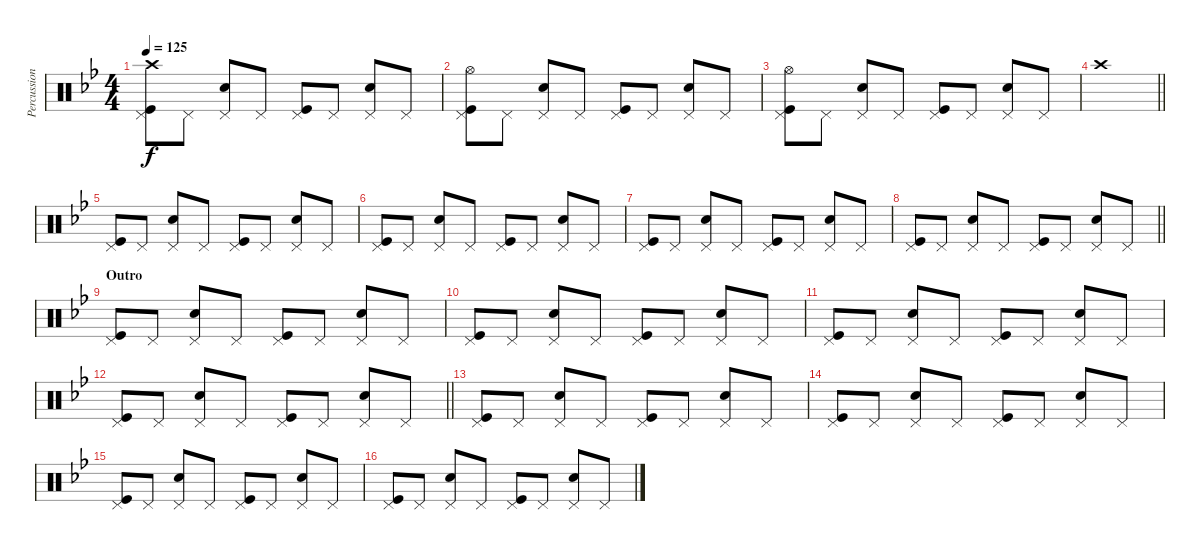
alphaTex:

\track ("Percussion" "Percussion") {instrument percussion}
\staff {score}
\articulation defaults
\ts (4 4)
\tempo 125
\clef neutral
\ks bb
("Crash high (hit)" "Kick (hit)" "Pedal Hi-Hat (hit)").8{dy f} "Pedal Hi-Hat (hit)".8 ("Snare (hit) 2" "Pedal Hi-Hat (hit)").8 "Pedal Hi-Hat (hit)".8 ("Kick (hit)" "Pedal Hi-Hat (hit)").8 "Pedal Hi-Hat (hit)".8 ("Snare (hit) 2" "Pedal Hi-Hat (hit)").8 "Pedal Hi-Hat (hit)".8 |
("Hi-Hat (open)" "Kick (hit)" "Pedal Hi-Hat (hit)").8 "Pedal Hi-Hat (hit)".8 ("Snare (hit) 2" "Pedal Hi-Hat (hit)").8 "Pedal Hi-Hat (hit)".8 ("Kick (hit)" "Pedal Hi-Hat (hit)").8 "Pedal Hi-Hat (hit)".8 ("Snare (hit) 2" "Pedal Hi-Hat (hit)").8 "Pedal Hi-Hat (hit)".8 |
("Hi-Hat (open)" "Kick (hit)" "Pedal Hi-Hat (hit)").8 "Pedal Hi-Hat (hit)".8 ("Snare (hit) 2" "Pedal Hi-Hat (hit)").8 "Pedal Hi-Hat (hit)".8 ("Kick (hit)" "Pedal Hi-Hat (hit)").8 "Pedal Hi-Hat (hit)".8 ("Snare (hit) 2" "Pedal Hi-Hat (hit)").8 "Pedal Hi-Hat (hit)".8 |
\barLineRight lightlight "Crash high (hit)".1
|
("Kick (hit)" "Pedal Hi-Hat (hit)").8 "Pedal Hi-Hat (hit)".8 ("Snare (hit) 2" "Pedal Hi-Hat (hit)").8 "Pedal Hi-Hat (hit)".8 ("Kick (hit)" "Pedal Hi-Hat (hit)").8 "Pedal Hi-Hat (hit)".8 ("Snare (hit) 2" "Pedal Hi-Hat (hit)").8 "Pedal Hi-Hat (hit)".8 |
("Kick (hit)" "Pedal Hi-Hat (hit)").8 "Pedal Hi-Hat (hit)".8 ("Snare (hit) 2" "Pedal Hi-Hat (hit)").8 "Pedal Hi-Hat (hit)".8 ("Kick (hit)" "Pedal Hi-Hat (hit)").8 "Pedal Hi-Hat (hit)".8 ("Snare (hit) 2" "Pedal Hi-Hat (hit)").8 "Pedal Hi-Hat (hit)".8 |
("Kick (hit)" "Pedal Hi-Hat (hit)").8 "Pedal Hi-Hat (hit)".8 ("Snare (hit) 2" "Pedal Hi-Hat (hit)").8 "Pedal Hi-Hat (hit)".8 ("Kick (hit)" "Pedal Hi-Hat (hit)").8 "Pedal Hi-Hat (hit)".8 ("Snare (hit) 2" "Pedal Hi-Hat (hit)").8 "Pedal Hi-Hat (hit)".8 |
\barLineRight lightlight
("Kick (hit)" "Pedal Hi-Hat (hit)").8 "Pedal Hi-Hat (hit)".8 ("Snare (hit) 2" "Pedal Hi-Hat (hit)").8 "Pedal Hi-Hat (hit)".8 ("Kick (hit)" "Pedal Hi-Hat (hit)").8 "Pedal Hi-Hat (hit)".8 ("Snare (hit) 2" "Pedal Hi-Hat (hit)").8 "Pedal Hi-Hat (hit)".8 |
\section ("" "Outro")
("Kick (hit)" "Pedal Hi-Hat (hit)").8 "Pedal Hi-Hat (hit)".8 ("Snare (hit) 2" "Pedal Hi-Hat (hit)").8 "Pedal Hi-Hat (hit)".8 ("Kick (hit)" "Pedal Hi-Hat (hit)").8 "Pedal Hi-Hat (hit)".8 ("Snare (hit) 2" "Pedal Hi-Hat (hit)").8 "Pedal Hi-Hat (hit)".8 |
("Kick (hit)" "Pedal Hi-Hat (hit)").8 "Pedal Hi-Hat (hit)".8 ("Snare (hit) 2" "Pedal Hi-Hat (hit)").8 "Pedal Hi-Hat (hit)".8 ("Kick (hit)" "Pedal Hi-Hat (hit)").8 "Pedal Hi-Hat (hit)".8 ("Snare (hit) 2" "Pedal Hi-Hat (hit)").8 "Pedal Hi-Hat (hit)".8 |
("Kick (hit)" "Pedal Hi-Hat (hit)").8 "Pedal Hi-Hat (hit)".8 ("Snare (hit) 2" "Pedal Hi-Hat (hit)").8 "Pedal Hi-Hat (hit)".8 ("Kick (hit)" "Pedal Hi-Hat (hit)").8 "Pedal Hi-Hat (hit)".8 ("Snare (hit) 2" "Pedal Hi-Hat (hit)").8 "Pedal Hi-Hat (hit)".8 |
\barLineRight lightlight
("Kick (hit)" "Pedal Hi-Hat (hit)").8 "Pedal Hi-Hat (hit)".8 ("Snare (hit) 2" "Pedal Hi-Hat (hit)").8 "Pedal Hi-Hat (hit)".8 ("Kick (hit)" "Pedal Hi-Hat (hit)").8 "Pedal Hi-Hat (hit)".8 ("Snare (hit) 2" "Pedal Hi-Hat (hit)").8 "Pedal Hi-Hat (hit)".8 |
("Kick (hit)" "Pedal Hi-Hat (hit)").8 "Pedal Hi-Hat (hit)".8 ("Snare (hit) 2" "Pedal Hi-Hat (hit)").8 "Pedal Hi-Hat (hit)".8 ("Kick (hit)" "Pedal Hi-Hat (hit)").8 "Pedal Hi-Hat (hit)".8 ("Snare (hit) 2" "Pedal Hi-Hat (hit)").8 "Pedal Hi-Hat (hit)".8 |
("Kick (hit)" "Pedal Hi-Hat (hit)").8 "Pedal Hi-Hat (hit)".8 ("Snare (hit) 2" "Pedal Hi-Hat (hit)").8 "Pedal Hi-Hat (hit)".8 ("Kick (hit)" "Pedal Hi-Hat (hit)").8 "Pedal Hi-Hat (hit)".8 ("Snare (hit) 2" "Pedal Hi-Hat (hit)").8 "Pedal Hi-Hat (hit)".8 |
("Kick (hit)" "Pedal Hi-Hat (hit)").8 "Pedal Hi-Hat (hit)".8 ("Snare (hit) 2" "Pedal Hi-Hat (hit)").8 "Pedal Hi-Hat (hit)".8 ("Kick (hit)" "Pedal Hi-Hat (hit)").8 "Pedal Hi-Hat (hit)".8 ("Snare (hit) 2" "Pedal Hi-Hat (hit)").8 "Pedal Hi-Hat (hit)".8 |
("Kick (hit)" "Pedal Hi-Hat (hit)").8 "Pedal Hi-Hat (hit)".8 ("Snare (hit) 2" "Pedal Hi-Hat (hit)").8 "Pedal Hi-Hat (hit)".8 ("Kick (hit)" "Pedal Hi-Hat (hit)").8 "Pedal Hi-Hat (hit)".8 ("Snare (hit) 2" "Pedal Hi-Hat (hit)").8 "Pedal Hi-Hat (hit)".8
